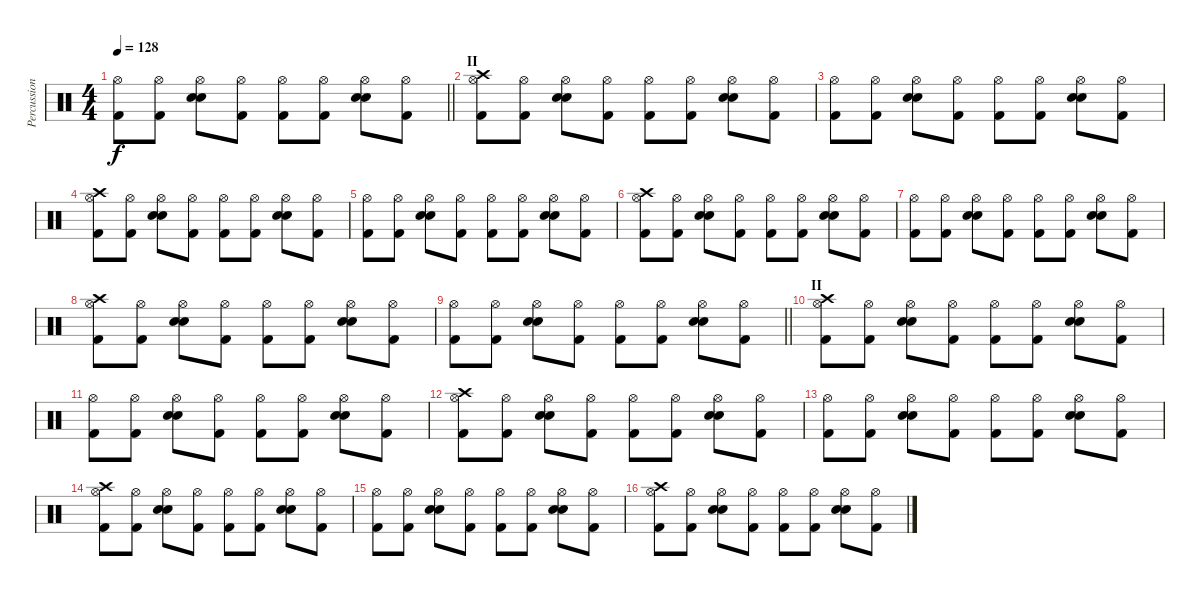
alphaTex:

\track ("Percussion" "Percussion") {instrument percussion}
\staff {score}
\articulation defaults
\ts (4 4)
\tempo 128
\clef neutral
\barLineRight lightlight
\ks c
("Kick (hit) 2" "Hi-Hat (open)").8{dy f} ("Kick (hit) 2" "Hi-Hat (open)").8 ("Electric Snare (hit)" "Snare (hit) 2" "Hi-Hat (open)").8 ("Kick (hit) 2" "Hi-Hat (open)").8 ("Kick (hit) 2" "Hi-Hat (open)").8 ("Kick (hit) 2" "Hi-Hat (open)").8 ("Electric Snare (hit)" "Snare (hit) 2" "Hi-Hat (open)").8 ("Kick (hit) 2" "Hi-Hat (open)").8 |
\section ("" "II")
("Crash high (hit)" "Kick (hit) 2" "Hi-Hat (open)").8 ("Kick (hit) 2" "Hi-Hat (open)").8 ("Electric Snare (hit)" "Snare (hit) 2" "Hi-Hat (open)").8 ("Kick (hit) 2" "Hi-Hat (open)").8 ("Kick (hit) 2" "Hi-Hat (open)").8 ("Kick (hit) 2" "Hi-Hat (open)").8 ("Electric Snare (hit)" "Snare (hit) 2" "Hi-Hat (open)").8 ("Kick (hit) 2" "Hi-Hat (open)").8 |
("Kick (hit) 2" "Hi-Hat (open)").8 ("Kick (hit) 2" "Hi-Hat (open)").8 ("Electric Snare (hit)" "Snare (hit) 2" "Hi-Hat (open)").8 ("Kick (hit) 2" "Hi-Hat (open)").8 ("Kick (hit) 2" "Hi-Hat (open)").8 ("Kick (hit) 2" "Hi-Hat (open)").8 ("Electric Snare (hit)" "Snare (hit) 2" "Hi-Hat (open)").8 ("Kick (hit) 2" "Hi-Hat (open)").8 |
("Crash high (hit)" "Kick (hit) 2" "Hi-Hat (open)").8 ("Kick (hit) 2" "Hi-Hat (open)").8 ("Electric Snare (hit)" "Snare (hit) 2" "Hi-Hat (open)").8 ("Kick (hit) 2" "Hi-Hat (open)").8 ("Kick (hit) 2" "Hi-Hat (open)").8 ("Kick (hit) 2" "Hi-Hat (open)").8 ("Electric Snare (hit)" "Snare (hit) 2" "Hi-Hat (open)").8 ("Kick (hit) 2" "Hi-Hat (open)").8 |
("Kick (hit) 2" "Hi-Hat (open)").8 ("Kick (hit) 2" "Hi-Hat (open)").8 ("Electric Snare (hit)" "Snare (hit) 2" "Hi-Hat (open)").8 ("Kick (hit) 2" "Hi-Hat (open)").8 ("Kick (hit) 2" "Hi-Hat (open)").8 ("Kick (hit) 2" "Hi-Hat (open)").8 ("Electric Snare (hit)" "Snare (hit) 2" "Hi-Hat (open)").8 ("Kick (hit) 2" "Hi-Hat (open)").8 |
("Crash high (hit)" "Kick (hit) 2" "Hi-Hat (open)").8 ("Kick (hit) 2" "Hi-Hat (open)").8 ("Electric Snare (hit)" "Snare (hit) 2" "Hi-Hat (open)").8 ("Kick (hit) 2" "Hi-Hat (open)").8 ("Kick (hit) 2" "Hi-Hat (open)").8 ("Kick (hit) 2" "Hi-Hat (open)").8 ("Electric Snare (hit)" "Snare (hit) 2" "Hi-Hat (open)").8 ("Kick (hit) 2" "Hi-Hat (open)").8 |
("Kick (hit) 2" "Hi-Hat (open)").8 ("Kick (hit) 2" "Hi-Hat (open)").8 ("Electric Snare (hit)" "Snare (hit) 2" "Hi-Hat (open)").8 ("Kick (hit) 2" "Hi-Hat (open)").8 ("Kick (hit) 2" "Hi-Hat (open)").8 ("Kick (hit) 2" "Hi-Hat (open)").8 ("Electric Snare (hit)" "Snare (hit) 2" "Hi-Hat (open)").8 ("Kick (hit) 2" "Hi-Hat (open)").8 |
("Crash high (hit)" "Kick (hit) 2" "Hi-Hat (open)").8 ("Kick (hit) 2" "Hi-Hat (open)").8 ("Electric Snare (hit)" "Snare (hit) 2" "Hi-Hat (open)").8 ("Kick (hit) 2" "Hi-Hat (open)").8 ("Kick (hit) 2" "Hi-Hat (open)").8 ("Kick (hit) 2" "Hi-Hat (open)").8 ("Electric Snare (hit)" "Snare (hit) 2" "Hi-Hat (open)").8 ("Kick (hit) 2" "Hi-Hat (open)").8 |
\barLineRight lightlight
("Kick (hit) 2" "Hi-Hat (open)").8 ("Kick (hit) 2" "Hi-Hat (open)").8 ("Electric Snare (hit)" "Snare (hit) 2" "Hi-Hat (open)").8 ("Kick (hit) 2" "Hi-Hat (open)").8 ("Kick (hit) 2" "Hi-Hat (open)").8 ("Kick (hit) 2" "Hi-Hat (open)").8 ("Electric Snare (hit)" "Snare (hit) 2" "Hi-Hat (open)").8 ("Kick (hit) 2" "Hi-Hat (open)").8 |
\section ("" "II")
("Crash high (hit)" "Kick (hit) 2" "Hi-Hat (open)").8 ("Kick (hit) 2" "Hi-Hat (open)").8 ("Electric Snare (hit)" "Snare (hit) 2" "Hi-Hat (open)").8 ("Kick (hit) 2" "Hi-Hat (open)").8 ("Kick (hit) 2" "Hi-Hat (open)").8 ("Kick (hit) 2" "Hi-Hat (open)").8 ("Electric Snare (hit)" "Snare (hit) 2" "Hi-Hat (open)").8 ("Kick (hit) 2" "Hi-Hat (open)").8 |
("Kick (hit) 2" "Hi-Hat (open)").8 ("Kick (hit) 2" "Hi-Hat (open)").8 ("Electric Snare (hit)" "Snare (hit) 2" "Hi-Hat (open)").8 ("Kick (hit) 2" "Hi-Hat (open)").8 ("Kick (hit) 2" "Hi-Hat (open)").8 ("Kick (hit) 2" "Hi-Hat (open)").8 ("Electric Snare (hit)" "Snare (hit) 2" "Hi-Hat (open)").8 ("Kick (hit) 2" "Hi-Hat (open)").8 |
("Crash high (hit)" "Kick (hit) 2" "Hi-Hat (open)").8 ("Kick (hit) 2" "Hi-Hat (open)").8 ("Electric Snare (hit)" "Snare (hit) 2" "Hi-Hat (open)").8 ("Kick (hit) 2" "Hi-Hat (open)").8 ("Kick (hit) 2" "Hi-Hat (open)").8 ("Kick (hit) 2" "Hi-Hat (open)").8 ("Electric Snare (hit)" "Snare (hit) 2" "Hi-Hat (open)").8 ("Kick (hit) 2" "Hi-Hat (open)").8 |
("Kick (hit) 2" "Hi-Hat (open)").8 ("Kick (hit) 2" "Hi-Hat (open)").8 ("Electric Snare (hit)" "Snare (hit) 2" "Hi-Hat (open)").8 ("Kick (hit) 2" "Hi-Hat (open)").8 ("Kick (hit) 2" "Hi-Hat (open)").8 ("Kick (hit) 2" "Hi-Hat (open)").8 ("Electric Snare (hit)" "Snare (hit) 2" "Hi-Hat (open)").8 ("Kick (hit) 2" "Hi-Hat (open)").8 |
("Crash high (hit)" "Kick (hit) 2" "Hi-Hat (open)").8 ("Kick (hit) 2" "Hi-Hat (open)").8 ("Electric Snare (hit)" "Snare (hit) 2" "Hi-Hat (open)").8 ("Kick (hit) 2" "Hi-Hat (open)").8 ("Kick (hit) 2" "Hi-Hat (open)").8 ("Kick (hit) 2" "Hi-Hat (open)").8 ("Electric Snare (hit)" "Snare (hit) 2" "Hi-Hat (open)").8 ("Kick (hit) 2" "Hi-Hat (open)").8 |
("Kick (hit) 2" "Hi-Hat (open)").8 ("Kick (hit) 2" "Hi-Hat (open)").8 ("Electric Snare (hit)" "Snare (hit) 2" "Hi-Hat (open)").8 ("Kick (hit) 2" "Hi-Hat (open)").8 ("Kick (hit) 2" "Hi-Hat (open)").8 ("Kick (hit) 2" "Hi-Hat (open)").8 ("Electric Snare (hit)" "Snare (hit) 2" "Hi-Hat (open)").8 ("Kick (hit) 2" "Hi-Hat (open)").8 |
("Crash high (hit)" "Kick (hit) 2" "Hi-Hat (open)").8 ("Kick (hit) 2" "Hi-Hat (open)").8 ("Electric Snare (hit)" "Snare (hit) 2" "Hi-Hat (open)").8 ("Kick (hit) 2" "Hi-Hat (open)").8 ("Kick (hit) 2" "Hi-Hat (open)").8 ("Kick (hit) 2" "Hi-Hat (open)").8 ("Electric Snare (hit)" "Snare (hit) 2" "Hi-Hat (open)").8 ("Kick (hit) 2" "Hi-Hat (open)").8
